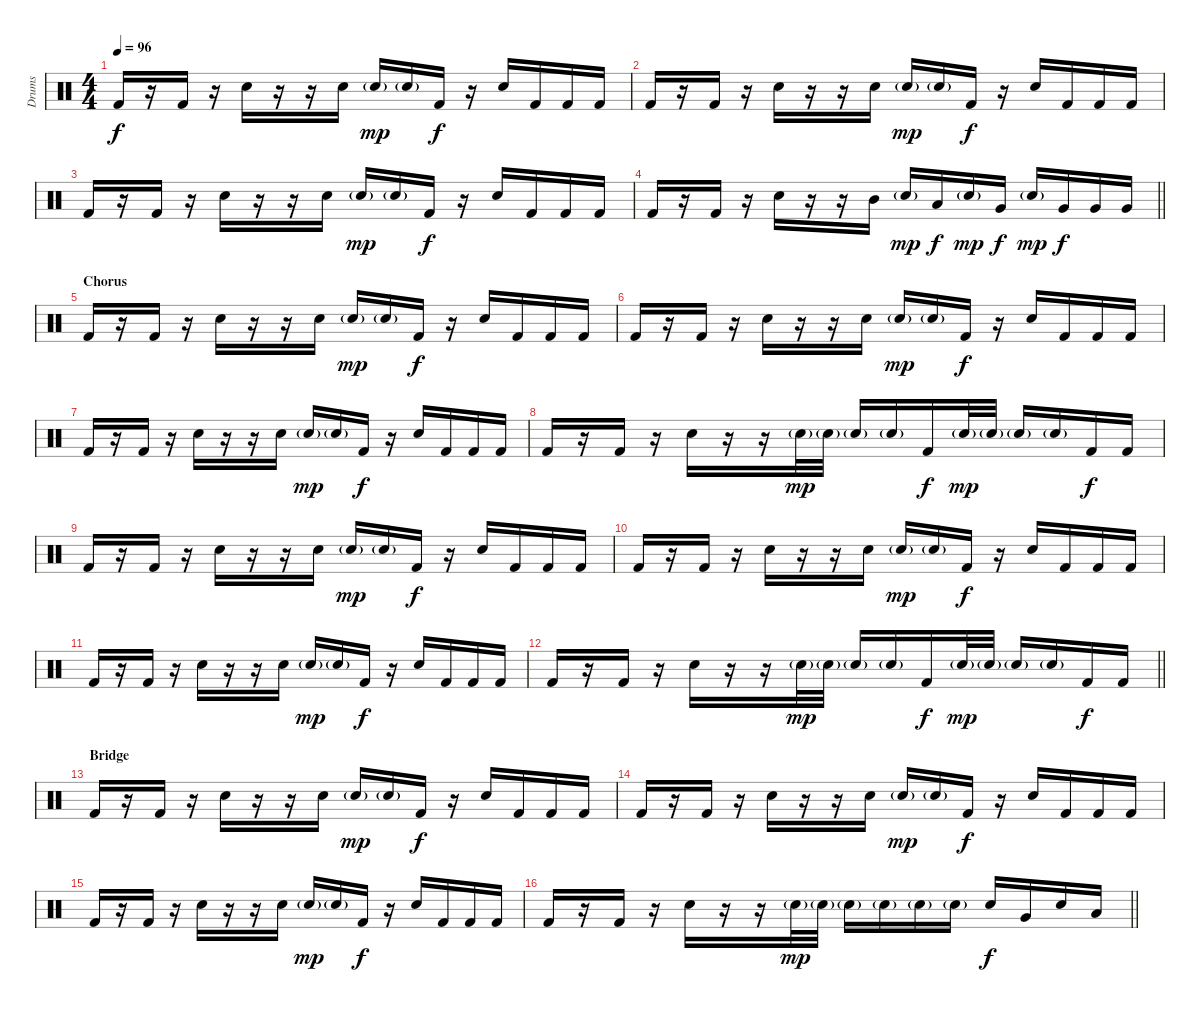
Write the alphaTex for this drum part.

\track ("Drums" "Drums") {instrument percussion}
\staff {score}
\articulation defaults
\ts (4 4)
\tempo 96
\clef neutral
\ks c "Kick (hit) 2".16{dy f}
r.16 "Kick (hit) 2".16 r.16 "Snare (hit) 2".16 r.16 r.16 "Snare (hit) 2".16 "Snare (hit) 2"{g}.16{dy mp} "Snare (hit) 2"{g}.16 "Kick (hit) 2".16{dy f} r.16 "Snare (hit) 2".16 "Kick (hit) 2".16 "Kick (hit) 2".16 "Kick (hit) 2".16 |
"Kick (hit) 2".16 r.16 "Kick (hit) 2".16 r.16 "Snare (hit) 2".16 r.16 r.16 "Snare (hit) 2".16 "Snare (hit) 2"{g}.16{dy mp} "Snare (hit) 2"{g}.16 "Kick (hit) 2".16{dy f} r.16 "Snare (hit) 2".16 "Kick (hit) 2".16 "Kick (hit) 2".16 "Kick (hit) 2".16 |
"Kick (hit) 2".16 r.16 "Kick (hit) 2".16 r.16 "Snare (hit) 2".16 r.16 r.16 "Snare (hit) 2".16 "Snare (hit) 2"{g}.16{dy mp} "Snare (hit) 2"{g}.16 "Kick (hit) 2".16{dy f} r.16 "Snare (hit) 2".16 "Kick (hit) 2".16 "Kick (hit) 2".16 "Kick (hit) 2".16 |
\barLineRight lightlight "Kick (hit) 2".16
r.16 "Kick (hit) 2".16 r.16 "Snare (hit) 2".16 r.16 r.16 "Mid Tom (hit)".16 "Snare (hit) 2"{g}.16{dy mp} "Low Tom (hit)".16{dy f} "Snare (hit) 2"{g}.16{dy mp} "Very Low Tom (hit)".16{dy f} "Snare (hit) 2"{g}.16{dy mp} "Very Low Tom (hit)".16{dy f} "Very Low Tom (hit)".16 "Very Low Tom (hit)".16 |
\section ("" "Chorus")
"Kick (hit) 2".16 r.16 "Kick (hit) 2".16 r.16 "Snare (hit) 2".16 r.16 r.16 "Snare (hit) 2".16 "Snare (hit) 2"{g}.16{dy mp} "Snare (hit) 2"{g}.16 "Kick (hit) 2".16{dy f} r.16 "Snare (hit) 2".16 "Kick (hit) 2".16 "Kick (hit) 2".16 "Kick (hit) 2".16 |
"Kick (hit) 2".16 r.16 "Kick (hit) 2".16 r.16 "Snare (hit) 2".16 r.16 r.16 "Snare (hit) 2".16 "Snare (hit) 2"{g}.16{dy mp} "Snare (hit) 2"{g}.16 "Kick (hit) 2".16{dy f} r.16 "Snare (hit) 2".16 "Kick (hit) 2".16 "Kick (hit) 2".16 "Kick (hit) 2".16 |
"Kick (hit) 2".16 r.16 "Kick (hit) 2".16 r.16 "Snare (hit) 2".16 r.16 r.16 "Snare (hit) 2".16 "Snare (hit) 2"{g}.16{dy mp} "Snare (hit) 2"{g}.16 "Kick (hit) 2".16{dy f} r.16 "Snare (hit) 2".16 "Kick (hit) 2".16 "Kick (hit) 2".16 "Kick (hit) 2".16 |
"Kick (hit) 2".16 r.16 "Kick (hit) 2".16 r.16 "Snare (hit) 2".16 r.16 r.16 "Snare (hit) 2"{g}.32{dy mp} "Snare (hit) 2"{g}.32 "Snare (hit) 2"{g}.16 "Snare (hit) 2"{g}.16 "Kick (hit) 2".16{dy f} "Snare (hit) 2"{g}.32{dy mp} "Snare (hit) 2"{g}.32 "Snare (hit) 2"{g}.16 "Snare (hit) 2"{g}.16 "Kick (hit) 2".16{dy f} "Kick (hit) 2".16 |
"Kick (hit) 2".16 r.16 "Kick (hit) 2".16 r.16 "Snare (hit) 2".16 r.16 r.16 "Snare (hit) 2".16 "Snare (hit) 2"{g}.16{dy mp} "Snare (hit) 2"{g}.16 "Kick (hit) 2".16{dy f} r.16 "Snare (hit) 2".16 "Kick (hit) 2".16 "Kick (hit) 2".16 "Kick (hit) 2".16 |
"Kick (hit) 2".16 r.16 "Kick (hit) 2".16 r.16 "Snare (hit) 2".16 r.16 r.16 "Snare (hit) 2".16 "Snare (hit) 2"{g}.16{dy mp} "Snare (hit) 2"{g}.16 "Kick (hit) 2".16{dy f} r.16 "Snare (hit) 2".16 "Kick (hit) 2".16 "Kick (hit) 2".16 "Kick (hit) 2".16 |
"Kick (hit) 2".16 r.16 "Kick (hit) 2".16 r.16 "Snare (hit) 2".16 r.16 r.16 "Snare (hit) 2".16 "Snare (hit) 2"{g}.16{dy mp} "Snare (hit) 2"{g}.16 "Kick (hit) 2".16{dy f} r.16 "Snare (hit) 2".16 "Kick (hit) 2".16 "Kick (hit) 2".16 "Kick (hit) 2".16 |
\barLineRight lightlight "Kick (hit) 2".16
r.16 "Kick (hit) 2".16 r.16 "Snare (hit) 2".16 r.16 r.16 "Snare (hit) 2"{g}.32{dy mp} "Snare (hit) 2"{g}.32 "Snare (hit) 2"{g}.16 "Snare (hit) 2"{g}.16 "Kick (hit) 2".16{dy f} "Snare (hit) 2"{g}.32{dy mp} "Snare (hit) 2"{g}.32 "Snare (hit) 2"{g}.16 "Snare (hit) 2"{g}.16 "Kick (hit) 2".16{dy f} "Kick (hit) 2".16 |
\section ("" "Bridge")
"Kick (hit) 2".16 r.16 "Kick (hit) 2".16 r.16 "Snare (hit) 2".16 r.16 r.16 "Snare (hit) 2".16 "Snare (hit) 2"{g}.16{dy mp} "Snare (hit) 2"{g}.16 "Kick (hit) 2".16{dy f} r.16 "Snare (hit) 2".16 "Kick (hit) 2".16 "Kick (hit) 2".16 "Kick (hit) 2".16 |
"Kick (hit) 2".16 r.16 "Kick (hit) 2".16 r.16 "Snare (hit) 2".16 r.16 r.16 "Snare (hit) 2".16 "Snare (hit) 2"{g}.16{dy mp} "Snare (hit) 2"{g}.16 "Kick (hit) 2".16{dy f} r.16 "Snare (hit) 2".16 "Kick (hit) 2".16 "Kick (hit) 2".16 "Kick (hit) 2".16 |
"Kick (hit) 2".16 r.16 "Kick (hit) 2".16 r.16 "Snare (hit) 2".16 r.16 r.16 "Snare (hit) 2".16 "Snare (hit) 2"{g}.16{dy mp} "Snare (hit) 2"{g}.16 "Kick (hit) 2".16{dy f} r.16 "Snare (hit) 2".16 "Kick (hit) 2".16 "Kick (hit) 2".16 "Kick (hit) 2".16 |
\barLineRight lightlight "Kick (hit) 2".16
r.16 "Kick (hit) 2".16 r.16 "Snare (hit) 2".16 r.16 r.16 "Snare (hit) 2"{g}.32{dy mp} "Snare (hit) 2"{g}.32 "Snare (hit) 2"{g}.16 "Snare (hit) 2"{g}.16 "Snare (hit) 2"{g}.16 "Snare (hit) 2"{g}.16 "Snare (hit) 2".16{dy f} "Very Low Tom (hit)".16 "Snare (hit) 2".16 "Low Tom (hit)".16
